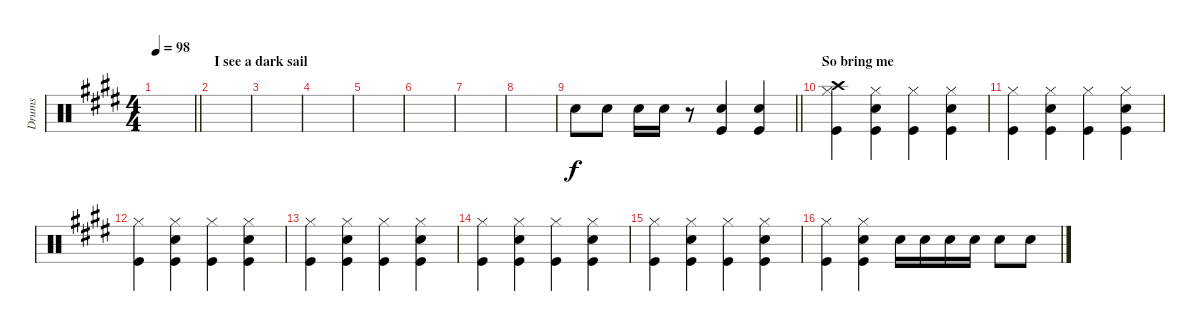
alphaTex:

\track ("Drums" "Drums") {instrument percussion}
\staff {score}
\articulation defaults
\ts (4 4)
\tempo 98
\clef neutral
\barLineRight lightlight
\ks c#minor
|
\section ("" "I see a dark sail")
|
|
|
|
|
|
|
\barLineRight lightlight "Snare (hit) 2".8 "Snare (hit) 2".8 "Snare (hit) 2".16 "Snare (hit) 2".16
r.8 ("Kick (hit)" "Snare (hit) 2").4 ("Kick (hit)" "Snare (hit) 2").4 |
\section ("" "So bring me ")
("Kick (hit)" "Hi-Hat (closed)" "Crash high (hit)").4 ("Kick (hit)" "Snare (hit) 2" "Hi-Hat (closed)").4 ("Kick (hit)" "Hi-Hat (closed)").4 ("Kick (hit)" "Snare (hit) 2" "Hi-Hat (closed)").4 |
("Kick (hit)" "Hi-Hat (closed)").4 ("Kick (hit)" "Snare (hit) 2" "Hi-Hat (closed)").4 ("Kick (hit)" "Hi-Hat (closed)").4 ("Kick (hit)" "Snare (hit) 2" "Hi-Hat (closed)").4 |
("Kick (hit)" "Hi-Hat (closed)").4 ("Kick (hit)" "Snare (hit) 2" "Hi-Hat (closed)").4 ("Kick (hit)" "Hi-Hat (closed)").4 ("Kick (hit)" "Snare (hit) 2" "Hi-Hat (closed)").4 |
("Kick (hit)" "Hi-Hat (closed)").4 ("Kick (hit)" "Snare (hit) 2" "Hi-Hat (closed)").4 ("Kick (hit)" "Hi-Hat (closed)").4 ("Kick (hit)" "Snare (hit) 2" "Hi-Hat (closed)").4 |
("Kick (hit)" "Hi-Hat (closed)").4 ("Kick (hit)" "Snare (hit) 2" "Hi-Hat (closed)").4 ("Kick (hit)" "Hi-Hat (closed)").4 ("Kick (hit)" "Snare (hit) 2" "Hi-Hat (closed)").4 |
("Kick (hit)" "Hi-Hat (closed)").4 ("Kick (hit)" "Snare (hit) 2" "Hi-Hat (closed)").4 ("Kick (hit)" "Hi-Hat (closed)").4 ("Kick (hit)" "Snare (hit) 2" "Hi-Hat (closed)").4 |
("Kick (hit)" "Hi-Hat (closed)").4 ("Kick (hit)" "Snare (hit) 2" "Hi-Hat (closed)").4 "Snare (hit) 2".16 "Snare (hit) 2".16 "Snare (hit) 2".16 "Snare (hit) 2".16 "Snare (hit) 2".8 "Snare (hit) 2".8
